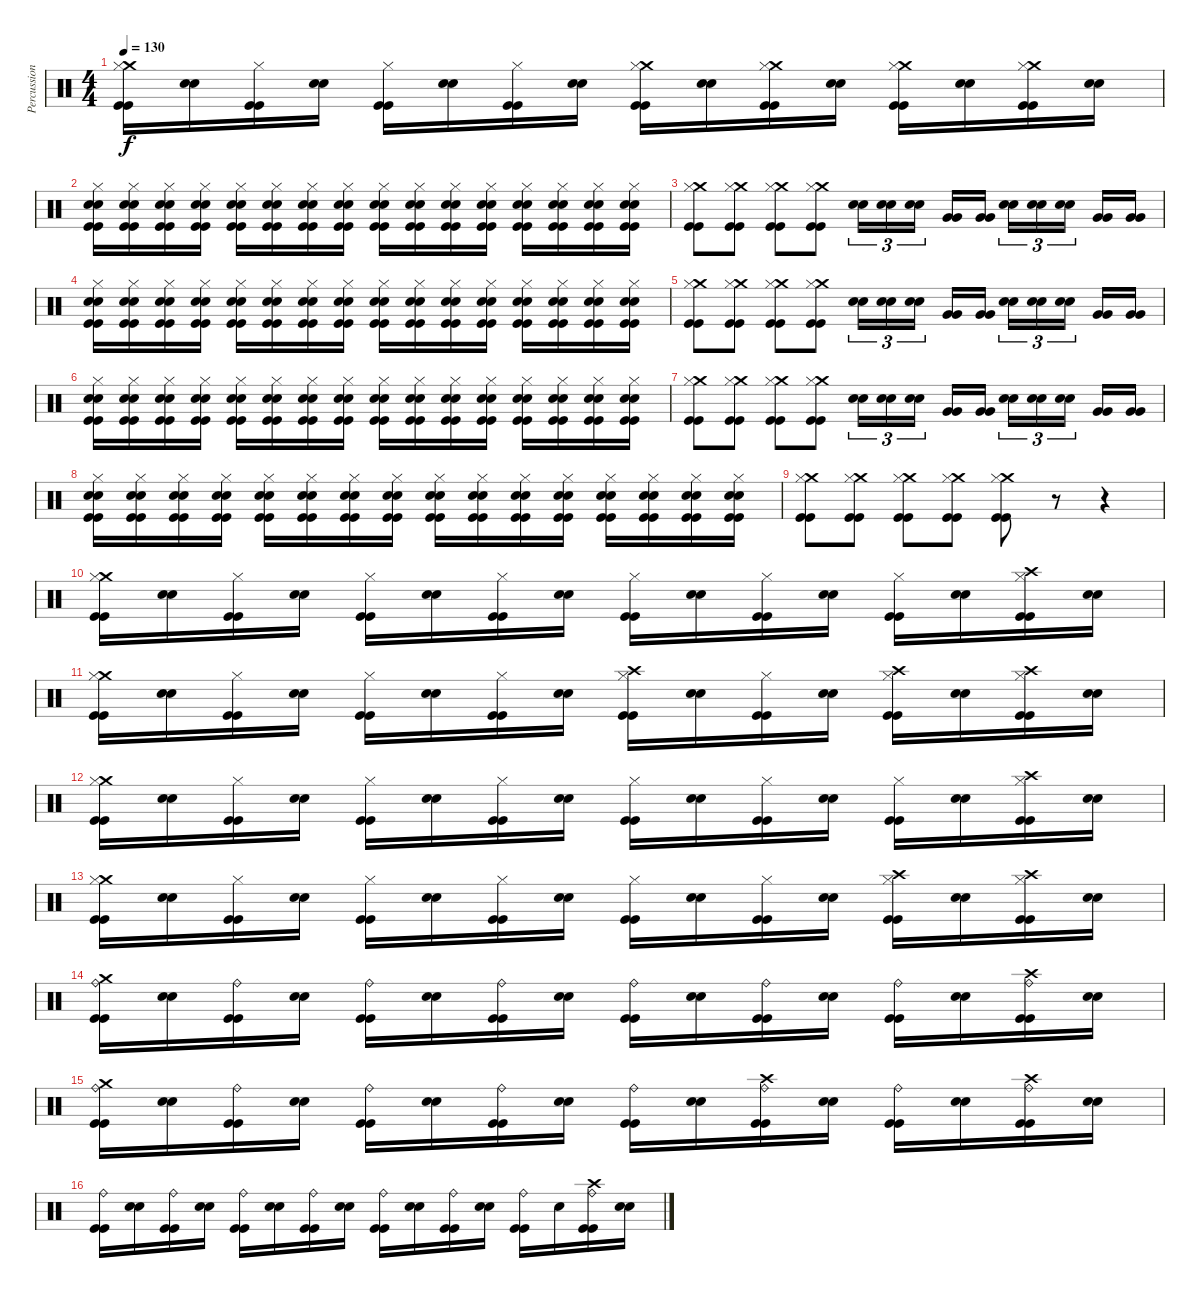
\track ("Percussion" "Percussion") {instrument percussion}
\staff {score}
\articulation defaults
\ts (4 4)
\tempo 130
\clef neutral
\ks c
("Crash medium (hit)" "Hi-Hat (closed)" "Kick (hit)" "Kick (hit)").16{dy f} ("Snare (hit) 2" "Snare (hit) 2").16 ("Hi-Hat (closed)" "Kick (hit)" "Kick (hit)").16 ("Snare (hit) 2" "Snare (hit) 2").16 ("Hi-Hat (closed)" "Kick (hit)" "Kick (hit)").16 ("Snare (hit) 2" "Snare (hit) 2").16 ("Hi-Hat (closed)" "Kick (hit)" "Kick (hit)").16 ("Snare (hit) 2" "Snare (hit) 2").16 ("Crash medium (hit)" "Hi-Hat (closed)" "Kick (hit)" "Kick (hit)").16 ("Snare (hit) 2" "Snare (hit) 2").16 ("Crash medium (hit)" "Hi-Hat (closed)" "Kick (hit)" "Kick (hit)").16 ("Snare (hit) 2" "Snare (hit) 2").16 ("Crash medium (hit)" "Hi-Hat (closed)" "Kick (hit)" "Kick (hit)").16 ("Snare (hit) 2" "Snare (hit) 2").16 ("Crash medium (hit)" "Hi-Hat (closed)" "Kick (hit)" "Kick (hit)").16 ("Snare (hit) 2" "Snare (hit) 2").16 |
("Snare (hit) 2" "Snare (hit) 2" "Hi-Hat (closed)" "Kick (hit)" "Kick (hit)").16 ("Snare (hit) 2" "Snare (hit) 2" "Hi-Hat (closed)" "Kick (hit)" "Kick (hit)").16 ("Snare (hit) 2" "Snare (hit) 2" "Hi-Hat (closed)" "Kick (hit)" "Kick (hit)").16 ("Snare (hit) 2" "Snare (hit) 2" "Hi-Hat (closed)" "Kick (hit)" "Kick (hit)").16 ("Snare (hit) 2" "Snare (hit) 2" "Hi-Hat (closed)" "Kick (hit)" "Kick (hit)").16 ("Snare (hit) 2" "Snare (hit) 2" "Hi-Hat (closed)" "Kick (hit)" "Kick (hit)").16 ("Snare (hit) 2" "Snare (hit) 2" "Hi-Hat (closed)" "Kick (hit)" "Kick (hit)").16 ("Snare (hit) 2" "Snare (hit) 2" "Hi-Hat (closed)" "Kick (hit)" "Kick (hit)").16 ("Snare (hit) 2" "Snare (hit) 2" "Hi-Hat (closed)" "Kick (hit)" "Kick (hit)").16 ("Snare (hit) 2" "Snare (hit) 2" "Hi-Hat (closed)" "Kick (hit)" "Kick (hit)").16 ("Snare (hit) 2" "Snare (hit) 2" "Hi-Hat (closed)" "Kick (hit)" "Kick (hit)").16 ("Snare (hit) 2" "Snare (hit) 2" "Hi-Hat (closed)" "Kick (hit)" "Kick (hit)").16 ("Snare (hit) 2" "Snare (hit) 2" "Hi-Hat (closed)" "Kick (hit)" "Kick (hit)").16 ("Snare (hit) 2" "Snare (hit) 2" "Hi-Hat (closed)" "Kick (hit)" "Kick (hit)").16 ("Snare (hit) 2" "Snare (hit) 2" "Hi-Hat (closed)" "Kick (hit)" "Kick (hit)").16 ("Snare (hit) 2" "Snare (hit) 2" "Hi-Hat (closed)" "Kick (hit)" "Kick (hit)").16 |
("Crash medium (hit)" "Hi-Hat (closed)" "Kick (hit)" "Kick (hit)").8 ("Crash medium (hit)" "Hi-Hat (closed)" "Kick (hit)" "Kick (hit)").8 ("Crash medium (hit)" "Hi-Hat (closed)" "Kick (hit)" "Kick (hit)").8 ("Crash medium (hit)" "Hi-Hat (closed)" "Kick (hit)" "Kick (hit)").8 ("Snare (hit) 2" "Snare (hit) 2").16{tu (3 2)} ("Snare (hit) 2" "Snare (hit) 2").16{tu (3 2)} ("Snare (hit) 2" "Snare (hit) 2").16{tu (3 2)} ("Very Low Tom (hit)" "Very Low Tom (hit)").16 ("Very Low Tom (hit)" "Very Low Tom (hit)").16 ("Snare (hit) 2" "Snare (hit) 2").16{tu (3 2)} ("Snare (hit) 2" "Snare (hit) 2").16{tu (3 2)} ("Snare (hit) 2" "Snare (hit) 2").16{tu (3 2)} ("Very Low Tom (hit)" "Very Low Tom (hit)").16 ("Very Low Tom (hit)" "Very Low Tom (hit)").16 |
("Snare (hit) 2" "Snare (hit) 2" "Hi-Hat (closed)" "Kick (hit)" "Kick (hit)").16 ("Snare (hit) 2" "Snare (hit) 2" "Hi-Hat (closed)" "Kick (hit)" "Kick (hit)").16 ("Snare (hit) 2" "Snare (hit) 2" "Hi-Hat (closed)" "Kick (hit)" "Kick (hit)").16 ("Snare (hit) 2" "Snare (hit) 2" "Hi-Hat (closed)" "Kick (hit)" "Kick (hit)").16 ("Snare (hit) 2" "Snare (hit) 2" "Hi-Hat (closed)" "Kick (hit)" "Kick (hit)").16 ("Snare (hit) 2" "Snare (hit) 2" "Hi-Hat (closed)" "Kick (hit)" "Kick (hit)").16 ("Snare (hit) 2" "Snare (hit) 2" "Hi-Hat (closed)" "Kick (hit)" "Kick (hit)").16 ("Snare (hit) 2" "Snare (hit) 2" "Hi-Hat (closed)" "Kick (hit)" "Kick (hit)").16 ("Snare (hit) 2" "Snare (hit) 2" "Hi-Hat (closed)" "Kick (hit)" "Kick (hit)").16 ("Snare (hit) 2" "Snare (hit) 2" "Hi-Hat (closed)" "Kick (hit)" "Kick (hit)").16 ("Snare (hit) 2" "Snare (hit) 2" "Hi-Hat (closed)" "Kick (hit)" "Kick (hit)").16 ("Snare (hit) 2" "Snare (hit) 2" "Hi-Hat (closed)" "Kick (hit)" "Kick (hit)").16 ("Snare (hit) 2" "Snare (hit) 2" "Hi-Hat (closed)" "Kick (hit)" "Kick (hit)").16 ("Snare (hit) 2" "Snare (hit) 2" "Hi-Hat (closed)" "Kick (hit)" "Kick (hit)").16 ("Snare (hit) 2" "Snare (hit) 2" "Hi-Hat (closed)" "Kick (hit)" "Kick (hit)").16 ("Snare (hit) 2" "Snare (hit) 2" "Hi-Hat (closed)" "Kick (hit)" "Kick (hit)").16 |
("Crash medium (hit)" "Hi-Hat (closed)" "Kick (hit)" "Kick (hit)").8 ("Crash medium (hit)" "Hi-Hat (closed)" "Kick (hit)" "Kick (hit)").8 ("Crash medium (hit)" "Hi-Hat (closed)" "Kick (hit)" "Kick (hit)").8 ("Crash medium (hit)" "Hi-Hat (closed)" "Kick (hit)" "Kick (hit)").8 ("Snare (hit) 2" "Snare (hit) 2").16{tu (3 2)} ("Snare (hit) 2" "Snare (hit) 2").16{tu (3 2)} ("Snare (hit) 2" "Snare (hit) 2").16{tu (3 2)} ("Very Low Tom (hit)" "Very Low Tom (hit)").16 ("Very Low Tom (hit)" "Very Low Tom (hit)").16 ("Snare (hit) 2" "Snare (hit) 2").16{tu (3 2)} ("Snare (hit) 2" "Snare (hit) 2").16{tu (3 2)} ("Snare (hit) 2" "Snare (hit) 2").16{tu (3 2)} ("Very Low Tom (hit)" "Very Low Tom (hit)").16 ("Very Low Tom (hit)" "Very Low Tom (hit)").16 |
("Snare (hit) 2" "Snare (hit) 2" "Hi-Hat (closed)" "Kick (hit)" "Kick (hit)").16 ("Snare (hit) 2" "Snare (hit) 2" "Hi-Hat (closed)" "Kick (hit)" "Kick (hit)").16 ("Snare (hit) 2" "Snare (hit) 2" "Hi-Hat (closed)" "Kick (hit)" "Kick (hit)").16 ("Snare (hit) 2" "Snare (hit) 2" "Hi-Hat (closed)" "Kick (hit)" "Kick (hit)").16 ("Snare (hit) 2" "Snare (hit) 2" "Hi-Hat (closed)" "Kick (hit)" "Kick (hit)").16 ("Snare (hit) 2" "Snare (hit) 2" "Hi-Hat (closed)" "Kick (hit)" "Kick (hit)").16 ("Snare (hit) 2" "Snare (hit) 2" "Hi-Hat (closed)" "Kick (hit)" "Kick (hit)").16 ("Snare (hit) 2" "Snare (hit) 2" "Hi-Hat (closed)" "Kick (hit)" "Kick (hit)").16 ("Snare (hit) 2" "Snare (hit) 2" "Hi-Hat (closed)" "Kick (hit)" "Kick (hit)").16 ("Snare (hit) 2" "Snare (hit) 2" "Hi-Hat (closed)" "Kick (hit)" "Kick (hit)").16 ("Snare (hit) 2" "Snare (hit) 2" "Hi-Hat (closed)" "Kick (hit)" "Kick (hit)").16 ("Snare (hit) 2" "Snare (hit) 2" "Hi-Hat (closed)" "Kick (hit)" "Kick (hit)").16 ("Snare (hit) 2" "Snare (hit) 2" "Hi-Hat (closed)" "Kick (hit)" "Kick (hit)").16 ("Snare (hit) 2" "Snare (hit) 2" "Hi-Hat (closed)" "Kick (hit)" "Kick (hit)").16 ("Snare (hit) 2" "Snare (hit) 2" "Hi-Hat (closed)" "Kick (hit)" "Kick (hit)").16 ("Snare (hit) 2" "Snare (hit) 2" "Hi-Hat (closed)" "Kick (hit)" "Kick (hit)").16 |
("Crash medium (hit)" "Hi-Hat (closed)" "Kick (hit)" "Kick (hit)").8 ("Crash medium (hit)" "Hi-Hat (closed)" "Kick (hit)" "Kick (hit)").8 ("Crash medium (hit)" "Hi-Hat (closed)" "Kick (hit)" "Kick (hit)").8 ("Crash medium (hit)" "Hi-Hat (closed)" "Kick (hit)" "Kick (hit)").8 ("Snare (hit) 2" "Snare (hit) 2").16{tu (3 2)} ("Snare (hit) 2" "Snare (hit) 2").16{tu (3 2)} ("Snare (hit) 2" "Snare (hit) 2").16{tu (3 2)} ("Very Low Tom (hit)" "Very Low Tom (hit)").16 ("Very Low Tom (hit)" "Very Low Tom (hit)").16 ("Snare (hit) 2" "Snare (hit) 2").16{tu (3 2)} ("Snare (hit) 2" "Snare (hit) 2").16{tu (3 2)} ("Snare (hit) 2" "Snare (hit) 2").16{tu (3 2)} ("Very Low Tom (hit)" "Very Low Tom (hit)").16 ("Very Low Tom (hit)" "Very Low Tom (hit)").16 |
("Snare (hit) 2" "Snare (hit) 2" "Hi-Hat (closed)" "Kick (hit)" "Kick (hit)").16 ("Snare (hit) 2" "Snare (hit) 2" "Hi-Hat (closed)" "Kick (hit)" "Kick (hit)").16 ("Snare (hit) 2" "Snare (hit) 2" "Hi-Hat (closed)" "Kick (hit)" "Kick (hit)").16 ("Snare (hit) 2" "Snare (hit) 2" "Hi-Hat (closed)" "Kick (hit)" "Kick (hit)").16 ("Snare (hit) 2" "Snare (hit) 2" "Hi-Hat (closed)" "Kick (hit)" "Kick (hit)").16 ("Snare (hit) 2" "Snare (hit) 2" "Hi-Hat (closed)" "Kick (hit)" "Kick (hit)").16 ("Snare (hit) 2" "Snare (hit) 2" "Hi-Hat (closed)" "Kick (hit)" "Kick (hit)").16 ("Snare (hit) 2" "Snare (hit) 2" "Hi-Hat (closed)" "Kick (hit)" "Kick (hit)").16 ("Snare (hit) 2" "Snare (hit) 2" "Hi-Hat (closed)" "Kick (hit)" "Kick (hit)").16 ("Snare (hit) 2" "Snare (hit) 2" "Hi-Hat (closed)" "Kick (hit)" "Kick (hit)").16 ("Snare (hit) 2" "Snare (hit) 2" "Hi-Hat (closed)" "Kick (hit)" "Kick (hit)").16 ("Snare (hit) 2" "Snare (hit) 2" "Hi-Hat (closed)" "Kick (hit)" "Kick (hit)").16 ("Snare (hit) 2" "Snare (hit) 2" "Hi-Hat (closed)" "Kick (hit)" "Kick (hit)").16 ("Snare (hit) 2" "Snare (hit) 2" "Hi-Hat (closed)" "Kick (hit)" "Kick (hit)").16 ("Snare (hit) 2" "Snare (hit) 2" "Hi-Hat (closed)" "Kick (hit)" "Kick (hit)").16 ("Snare (hit) 2" "Snare (hit) 2" "Hi-Hat (closed)" "Kick (hit)" "Kick (hit)").16 |
("Crash medium (hit)" "Hi-Hat (closed)" "Kick (hit)" "Kick (hit)").8 ("Crash medium (hit)" "Hi-Hat (closed)" "Kick (hit)" "Kick (hit)").8 ("Crash medium (hit)" "Hi-Hat (closed)" "Kick (hit)" "Kick (hit)").8 ("Crash medium (hit)" "Hi-Hat (closed)" "Kick (hit)" "Kick (hit)").8 ("Crash medium (hit)" "Hi-Hat (closed)" "Kick (hit)" "Kick (hit)").8 r.8 r.4 |
("Crash medium (hit)" "Hi-Hat (closed)" "Kick (hit)" "Kick (hit)").16 ("Snare (hit) 2" "Snare (hit) 2").16 ("Hi-Hat (closed)" "Kick (hit)" "Kick (hit)").16 ("Snare (hit) 2" "Snare (hit) 2").16 ("Hi-Hat (closed)" "Kick (hit)" "Kick (hit)").16 ("Snare (hit) 2" "Snare (hit) 2").16 ("Hi-Hat (closed)" "Kick (hit)" "Kick (hit)").16 ("Snare (hit) 2" "Snare (hit) 2").16 ("Hi-Hat (closed)" "Kick (hit)" "Kick (hit)").16 ("Snare (hit) 2" "Snare (hit) 2").16 ("Hi-Hat (closed)" "Kick (hit)" "Kick (hit)").16 ("Snare (hit) 2" "Snare (hit) 2").16 ("Hi-Hat (closed)" "Kick (hit)" "Kick (hit)").16 ("Snare (hit) 2" "Snare (hit) 2").16 ("Crash high (hit)" "Hi-Hat (closed)" "Kick (hit)" "Kick (hit)").16 ("Snare (hit) 2" "Snare (hit) 2").16 |
("Crash medium (hit)" "Hi-Hat (closed)" "Kick (hit)" "Kick (hit)").16 ("Snare (hit) 2" "Snare (hit) 2").16 ("Hi-Hat (closed)" "Kick (hit)" "Kick (hit)").16 ("Snare (hit) 2" "Snare (hit) 2").16 ("Hi-Hat (closed)" "Kick (hit)" "Kick (hit)").16 ("Snare (hit) 2" "Snare (hit) 2").16 ("Hi-Hat (closed)" "Kick (hit)" "Kick (hit)").16 ("Snare (hit) 2" "Snare (hit) 2").16 ("Crash high (hit)" "Hi-Hat (closed)" "Kick (hit)" "Kick (hit)").16 ("Snare (hit) 2" "Snare (hit) 2").16 ("Hi-Hat (closed)" "Kick (hit)" "Kick (hit)").16 ("Snare (hit) 2" "Snare (hit) 2").16 ("Crash high (hit)" "Hi-Hat (closed)" "Kick (hit)" "Kick (hit)").16 ("Snare (hit) 2" "Snare (hit) 2").16 ("Crash high (hit)" "Hi-Hat (closed)" "Kick (hit)" "Kick (hit)").16 ("Snare (hit) 2" "Snare (hit) 2").16 |
("Crash medium (hit)" "Hi-Hat (closed)" "Kick (hit)" "Kick (hit)").16 ("Snare (hit) 2" "Snare (hit) 2").16 ("Hi-Hat (closed)" "Kick (hit)" "Kick (hit)").16 ("Snare (hit) 2" "Snare (hit) 2").16 ("Hi-Hat (closed)" "Kick (hit)" "Kick (hit)").16 ("Snare (hit) 2" "Snare (hit) 2").16 ("Hi-Hat (closed)" "Kick (hit)" "Kick (hit)").16 ("Snare (hit) 2" "Snare (hit) 2").16 ("Hi-Hat (closed)" "Kick (hit)" "Kick (hit)").16 ("Snare (hit) 2" "Snare (hit) 2").16 ("Hi-Hat (closed)" "Kick (hit)" "Kick (hit)").16 ("Snare (hit) 2" "Snare (hit) 2").16 ("Hi-Hat (closed)" "Kick (hit)" "Kick (hit)").16 ("Snare (hit) 2" "Snare (hit) 2").16 ("Crash high (hit)" "Hi-Hat (closed)" "Kick (hit)" "Kick (hit)").16 ("Snare (hit) 2" "Snare (hit) 2").16 |
("Crash medium (hit)" "Hi-Hat (closed)" "Kick (hit)" "Kick (hit)").16 ("Snare (hit) 2" "Snare (hit) 2").16 ("Hi-Hat (closed)" "Kick (hit)" "Kick (hit)").16 ("Snare (hit) 2" "Snare (hit) 2").16 ("Hi-Hat (closed)" "Kick (hit)" "Kick (hit)").16 ("Snare (hit) 2" "Snare (hit) 2").16 ("Hi-Hat (closed)" "Kick (hit)" "Kick (hit)").16 ("Snare (hit) 2" "Snare (hit) 2").16 ("Hi-Hat (closed)" "Kick (hit)" "Kick (hit)").16 ("Snare (hit) 2" "Snare (hit) 2").16 ("Hi-Hat (closed)" "Kick (hit)" "Kick (hit)").16 ("Snare (hit) 2" "Snare (hit) 2").16 ("Crash high (hit)" "Hi-Hat (closed)" "Kick (hit)" "Kick (hit)").16 ("Snare (hit) 2" "Snare (hit) 2").16 ("Crash high (hit)" "Hi-Hat (closed)" "Kick (hit)" "Kick (hit)").16 ("Snare (hit) 2" "Snare (hit) 2").16 |
("Crash medium (hit)" "Ride (bell)" "Kick (hit)" "Kick (hit)").16 ("Snare (hit) 2" "Snare (hit) 2").16 ("Ride (bell)" "Kick (hit)" "Kick (hit)").16 ("Snare (hit) 2" "Snare (hit) 2").16 ("Ride (bell)" "Kick (hit)" "Kick (hit)").16 ("Snare (hit) 2" "Snare (hit) 2").16 ("Ride (bell)" "Kick (hit)" "Kick (hit)").16 ("Snare (hit) 2" "Snare (hit) 2").16 ("Ride (bell)" "Kick (hit)" "Kick (hit)").16 ("Snare (hit) 2" "Snare (hit) 2").16 ("Ride (bell)" "Kick (hit)" "Kick (hit)").16 ("Snare (hit) 2" "Snare (hit) 2").16 ("Ride (bell)" "Kick (hit)" "Kick (hit)").16 ("Snare (hit) 2" "Snare (hit) 2").16 ("Crash high (hit)" "Ride (bell)" "Kick (hit)" "Kick (hit)").16 ("Snare (hit) 2" "Snare (hit) 2").16 |
("Crash medium (hit)" "Ride (bell)" "Kick (hit)" "Kick (hit)").16 ("Snare (hit) 2" "Snare (hit) 2").16 ("Ride (bell)" "Kick (hit)" "Kick (hit)").16 ("Snare (hit) 2" "Snare (hit) 2").16 ("Ride (bell)" "Kick (hit)" "Kick (hit)").16 ("Snare (hit) 2" "Snare (hit) 2").16 ("Ride (bell)" "Kick (hit)" "Kick (hit)").16 ("Snare (hit) 2" "Snare (hit) 2").16 ("Ride (bell)" "Kick (hit)" "Kick (hit)").16 ("Snare (hit) 2" "Snare (hit) 2").16 ("Crash high (hit)" "Ride (bell)" "Kick (hit)" "Kick (hit)").16 ("Snare (hit) 2" "Snare (hit) 2").16 ("Ride (bell)" "Kick (hit)" "Kick (hit)").16 ("Snare (hit) 2" "Snare (hit) 2").16 ("Crash high (hit)" "Ride (bell)" "Kick (hit)" "Kick (hit)").16 ("Snare (hit) 2" "Snare (hit) 2").16 |
("Ride (bell)" "Kick (hit)" "Kick (hit)").16 ("Snare (hit) 2" "Snare (hit) 2").16 ("Ride (bell)" "Kick (hit)" "Kick (hit)").16 ("Snare (hit) 2" "Snare (hit) 2").16 ("Ride (bell)" "Kick (hit)" "Kick (hit)").16 ("Snare (hit) 2" "Snare (hit) 2").16 ("Ride (bell)" "Kick (hit)" "Kick (hit)").16 ("Snare (hit) 2" "Snare (hit) 2").16 ("Ride (bell)" "Kick (hit)" "Kick (hit)").16 ("Snare (hit) 2" "Snare (hit) 2").16 ("Ride (bell)" "Kick (hit)" "Kick (hit)").16 ("Snare (hit) 2" "Snare (hit) 2").16 ("Ride (bell)" "Kick (hit)" "Kick (hit)").16 "Snare (hit) 2".16 ("Crash high (hit)" "Ride (bell)" "Kick (hit)" "Kick (hit)").16 ("Snare (hit) 2" "Snare (hit) 2").16
